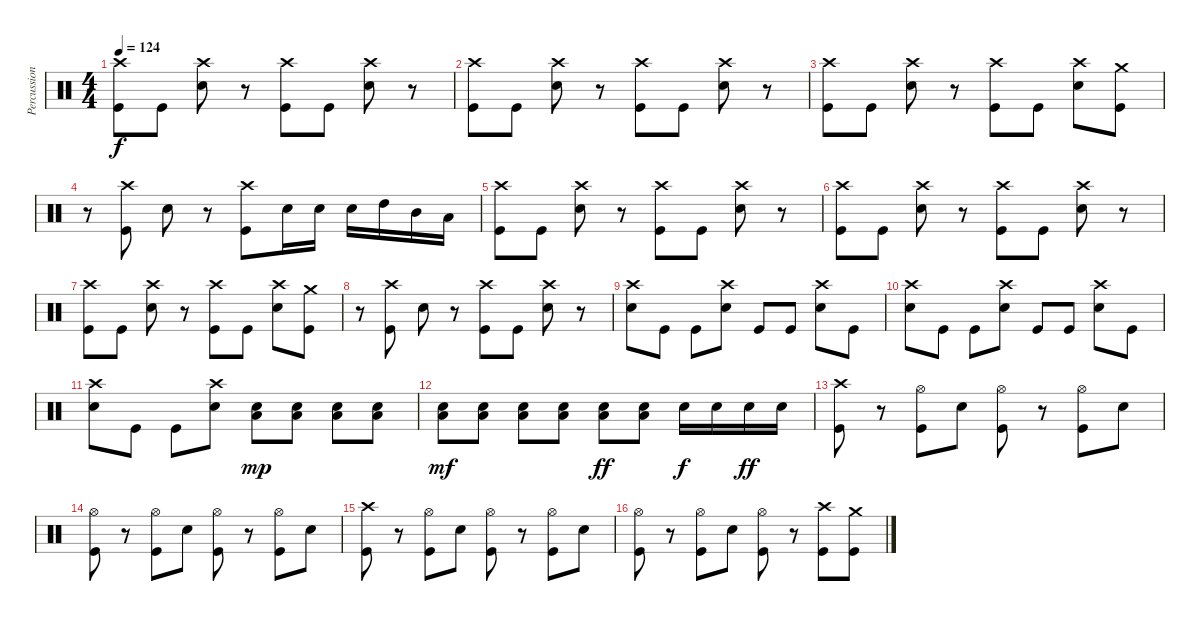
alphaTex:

\track ("Percussion" "Percussion") {instrument percussion}
\staff {score}
\articulation defaults
\ts (4 4)
\tempo 124
\clef neutral
\ks c
("Crash high (hit)" "Kick (hit)").8{dy f} "Kick (hit)".8 ("Crash high (hit)" "Snare (hit) 2").8 r.8 ("Crash high (hit)" "Kick (hit)").8 "Kick (hit)".8 ("Crash high (hit)" "Snare (hit) 2").8 r.8 |
("Crash high (hit)" "Kick (hit)").8 "Kick (hit)".8 ("Crash high (hit)" "Snare (hit) 2").8 r.8 ("Crash high (hit)" "Kick (hit)").8 "Kick (hit)".8 ("Crash high (hit)" "Snare (hit) 2").8 r.8 |
("Crash high (hit)" "Kick (hit)").8 "Kick (hit)".8 ("Crash high (hit)" "Snare (hit) 2").8 r.8 ("Crash high (hit)" "Kick (hit)").8 "Kick (hit)".8 ("Crash high (hit)" "Snare (hit) 2").8 ("Crash medium (hit)" "Kick (hit)").8 |
r.8 ("Crash high (hit)" "Kick (hit)").8 "Snare (hit) 2".8 r.8 ("Crash high (hit)" "Kick (hit)").8 "Snare (hit) 2".16 "Snare (hit) 2".16 "Snare (hit) 2".16 "High Tom (hit)".16 "Mid Tom (hit)".16 "Low Tom (hit)".16 |
("Crash high (hit)" "Kick (hit)").8 "Kick (hit)".8 ("Crash high (hit)" "Snare (hit) 2").8 r.8 ("Crash high (hit)" "Kick (hit)").8 "Kick (hit)".8 ("Crash high (hit)" "Snare (hit) 2").8 r.8 |
("Crash high (hit)" "Kick (hit)").8 "Kick (hit)".8 ("Crash high (hit)" "Snare (hit) 2").8 r.8 ("Crash high (hit)" "Kick (hit)").8 "Kick (hit)".8 ("Crash high (hit)" "Snare (hit) 2").8 r.8 |
("Crash high (hit)" "Kick (hit)").8 "Kick (hit)".8 ("Crash high (hit)" "Snare (hit) 2").8 r.8 ("Crash high (hit)" "Kick (hit)").8 "Kick (hit)".8 ("Crash high (hit)" "Snare (hit) 2").8 ("Crash medium (hit)" "Kick (hit)").8 |
r.8 ("Crash high (hit)" "Kick (hit)").8 "Snare (hit) 2".8 r.8 ("Crash high (hit)" "Kick (hit)").8 "Kick (hit)".8 ("Crash high (hit)" "Snare (hit) 2").8 r.8 |
("Crash high (hit)" "Snare (hit) 2").8 "Kick (hit)".8 "Kick (hit)".8 ("Crash high (hit)" "Snare (hit) 2").8 "Kick (hit)".8 "Kick (hit)".8 ("Crash high (hit)" "Snare (hit) 2").8 "Kick (hit)".8 |
("Crash high (hit)" "Snare (hit) 2").8 "Kick (hit)".8 "Kick (hit)".8 ("Crash high (hit)" "Snare (hit) 2").8 "Kick (hit)".8 "Kick (hit)".8 ("Crash high (hit)" "Snare (hit) 2").8 "Kick (hit)".8 |
("Crash high (hit)" "Snare (hit) 2").8 "Kick (hit)".8 "Kick (hit)".8 ("Crash high (hit)" "Snare (hit) 2").8 ("Low Floor Tom (hit)" "Snare (hit) 2").8{dy mp} ("Low Floor Tom (hit)" "Snare (hit) 2").8 ("Low Floor Tom (hit)" "Snare (hit) 2").8 ("Low Floor Tom (hit)" "Snare (hit) 2").8 |
("Low Floor Tom (hit)" "Snare (hit) 2").8{dy mf} ("Low Floor Tom (hit)" "Snare (hit) 2").8 ("Low Floor Tom (hit)" "Snare (hit) 2").8 ("Low Floor Tom (hit)" "Snare (hit) 2").8 ("Low Floor Tom (hit)" "Snare (hit) 2").8{dy ff} ("Low Floor Tom (hit)" "Snare (hit) 2").8 "Snare (hit) 2".16{dy f} "Snare (hit) 2".16 "Snare (hit) 2".16{dy ff} "Snare (hit) 2".16 |
("Crash high (hit)" "Kick (hit)").8 r.8 ("Hi-Hat (open)" "Kick (hit)").8 "Snare (hit) 2".8 ("Hi-Hat (open)" "Kick (hit)").8 r.8 ("Hi-Hat (open)" "Kick (hit)").8 "Snare (hit) 2".8 |
("Hi-Hat (open)" "Kick (hit)").8 r.8 ("Hi-Hat (open)" "Kick (hit)").8 "Snare (hit) 2".8 ("Hi-Hat (open)" "Kick (hit)").8 r.8 ("Hi-Hat (open)" "Kick (hit)").8 "Snare (hit) 2".8 |
("Crash high (hit)" "Kick (hit)").8 r.8 ("Hi-Hat (open)" "Kick (hit)").8 "Snare (hit) 2".8 ("Hi-Hat (open)" "Kick (hit)").8 r.8 ("Hi-Hat (open)" "Kick (hit)").8 "Snare (hit) 2".8 |
("Hi-Hat (open)" "Kick (hit)").8 r.8 ("Hi-Hat (open)" "Kick (hit)").8 "Snare (hit) 2".8 ("Hi-Hat (open)" "Kick (hit)").8 r.8 ("Crash high (hit)" "Kick (hit)").8 ("Crash medium (hit)" "Kick (hit)").8
